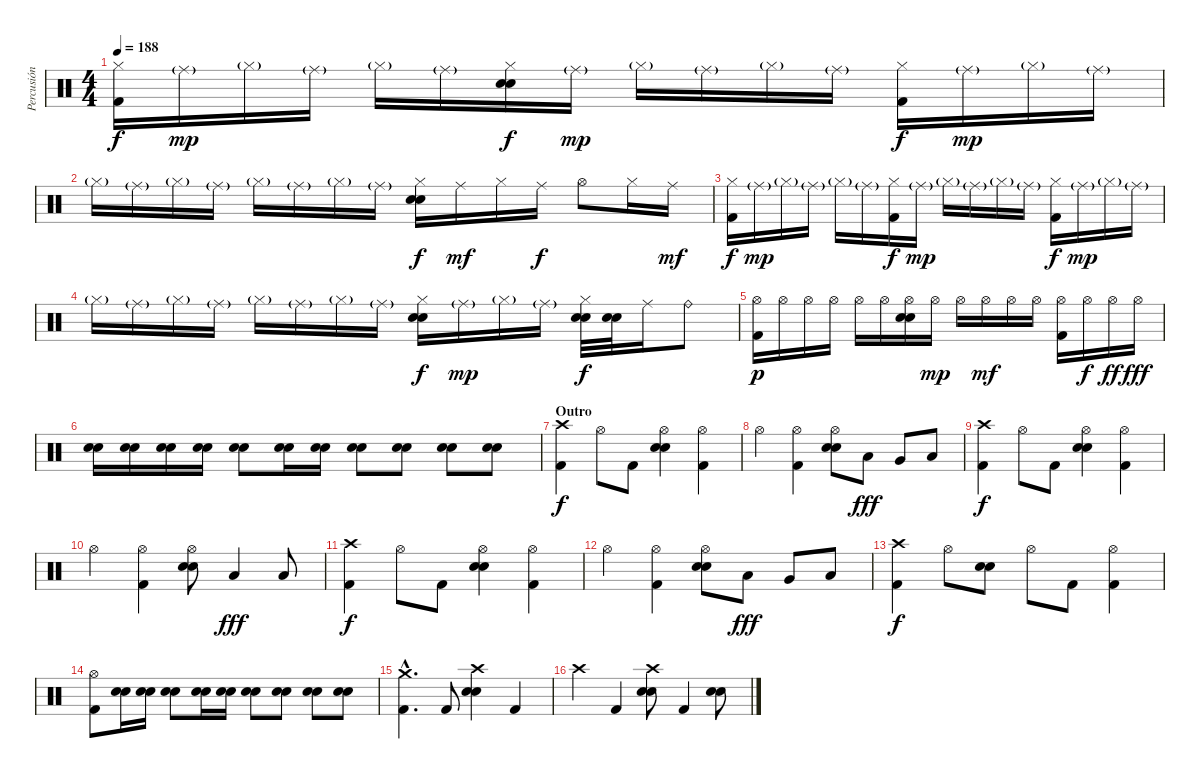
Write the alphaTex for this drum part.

\track ("Percusión" "Percusión") {instrument percussion}
\staff {score}
\articulation defaults
\ts (4 4)
\tempo 188
\clef neutral
\ks c
("Hi-Hat (closed)" "Kick (hit) 2").16{dy f} "Ride (middle)"{g}.16{dy mp} "Hi-Hat (closed)"{g}.16 "Ride (middle)"{g}.16 "Hi-Hat (closed)"{g}.16 "Ride (middle)"{g}.16 ("Hi-Hat (closed)" "Electric Snare (hit)" "Snare (hit) 2").16{dy f} "Ride (middle)"{g}.16{dy mp} "Hi-Hat (closed)"{g}.16 "Ride (middle)"{g}.16 "Hi-Hat (closed)"{g}.16 "Ride (middle)"{g}.16 ("Hi-Hat (closed)" "Kick (hit) 2").16{dy f} "Ride (middle)"{g}.16{dy mp} "Hi-Hat (closed)"{g}.16 "Ride (middle)"{g}.16 |
"Hi-Hat (closed)"{g}.16 "Ride (middle)"{g}.16 "Hi-Hat (closed)"{g}.16 "Ride (middle)"{g}.16 "Hi-Hat (closed)"{g}.16 "Ride (middle)"{g}.16 "Hi-Hat (closed)"{g}.16 "Ride (middle)"{g}.16 ("Hi-Hat (closed)" "Electric Snare (hit)" "Snare (hit) 2").16{dy f} "Ride (middle)".16{dy mf} "Hi-Hat (closed)".16 "Ride (middle)".16{dy f} "Hi-Hat (open)".8 "Hi-Hat (closed)".16 "Ride (middle)".16{dy mf} |
("Hi-Hat (closed)" "Kick (hit) 2").16{dy f} "Ride (middle)"{g}.16{dy mp} "Hi-Hat (closed)"{g}.16 "Ride (middle)"{g}.16 "Hi-Hat (closed)"{g}.16 "Ride (middle)"{g}.16 ("Hi-Hat (closed)" "Kick (hit) 2").16{dy f} "Ride (middle)"{g}.16{dy mp} "Hi-Hat (closed)"{g}.16 "Ride (middle)"{g}.16 "Hi-Hat (closed)"{g}.16 "Ride (middle)"{g}.16 ("Hi-Hat (closed)" "Kick (hit) 2").16{dy f} "Ride (middle)"{g}.16{dy mp} "Hi-Hat (closed)"{g}.16 "Ride (middle)"{g}.16 |
"Hi-Hat (closed)"{g}.16 "Ride (middle)"{g}.16 "Hi-Hat (closed)"{g}.16 "Ride (middle)"{g}.16 "Hi-Hat (closed)"{g}.16 "Ride (middle)"{g}.16 "Hi-Hat (closed)"{g}.16 "Ride (middle)"{g}.16 ("Hi-Hat (closed)" "Electric Snare (hit)" "Snare (hit) 2").16{dy f} "Ride (middle)"{g}.16{dy mp} "Hi-Hat (closed)"{g}.16 "Ride (middle)"{g}.16 ("Hi-Hat (closed)" "Electric Snare (hit)" "Snare (hit) 2").32{dy f} ("Electric Snare (hit)" "Snare (hit) 2").32 "Ride (middle)".16 "Ride (bell)".8 |
("Hi-Hat (open)" "Kick (hit) 2").16{dy p} "Hi-Hat (open)".16 "Hi-Hat (open)".16 "Hi-Hat (open)".16 "Hi-Hat (open)".16 "Hi-Hat (open)".16 ("Hi-Hat (open)" "Electric Snare (hit)" "Snare (hit) 2").16 "Hi-Hat (open)".16{dy mp} "Hi-Hat (open)".16 "Hi-Hat (open)".16{dy mf} "Hi-Hat (open)".16 "Hi-Hat (open)".16 ("Hi-Hat (open)" "Kick (hit) 2").16 "Hi-Hat (open)".16{dy f} "Hi-Hat (open)".16{dy ff} "Hi-Hat (open)".16{dy fff} |
("Electric Snare (hit)" "Snare (hit) 2").16 ("Electric Snare (hit)" "Snare (hit) 2").16 ("Electric Snare (hit)" "Snare (hit) 2").16 ("Electric Snare (hit)" "Snare (hit) 2").16 ("Electric Snare (hit)" "Snare (hit) 2").8 ("Electric Snare (hit)" "Snare (hit) 2").16 ("Electric Snare (hit)" "Snare (hit) 2").16 ("Electric Snare (hit)" "Snare (hit) 2").8 ("Electric Snare (hit)" "Snare (hit) 2").8 ("Electric Snare (hit)" "Snare (hit) 2").8 ("Electric Snare (hit)" "Snare (hit) 2").8 |
\section ("" "Outro")
("Crash high (hit)" "Kick (hit) 2").4{dy f volume 13} "Hi-Hat (open)".8 "Kick (hit) 2".8 ("Hi-Hat (open)" "Electric Snare (hit)" "Snare (hit) 2").4 ("Hi-Hat (open)" "Kick (hit) 2").4 |
"Hi-Hat (open)".4 ("Hi-Hat (open)" "Kick (hit) 2").4 ("Hi-Hat (open)" "Electric Snare (hit)" "Snare (hit) 2").8 "Low Tom (hit)".8{dy fff} "Very Low Tom (hit)".8 "Low Floor Tom (hit)".8 |
("Crash high (hit)" "Kick (hit) 2").4{dy f} "Hi-Hat (open)".8 "Kick (hit) 2".8 ("Hi-Hat (open)" "Electric Snare (hit)" "Snare (hit) 2").4 ("Hi-Hat (open)" "Kick (hit) 2").4 |
"Hi-Hat (open)".4 ("Hi-Hat (open)" "Kick (hit) 2").4 ("Hi-Hat (open)" "Electric Snare (hit)" "Snare (hit) 2").8 "Low Tom (hit)".4{dy fff} "Low Floor Tom (hit)".8 |
("Crash high (hit)" "Kick (hit) 2").4{dy f} "Hi-Hat (open)".8 "Kick (hit) 2".8 ("Hi-Hat (open)" "Electric Snare (hit)" "Snare (hit) 2").4 ("Hi-Hat (open)" "Kick (hit) 2").4 |
"Hi-Hat (open)".4 ("Hi-Hat (open)" "Kick (hit) 2").4 ("Hi-Hat (open)" "Electric Snare (hit)" "Snare (hit) 2").8 "Low Tom (hit)".8{dy fff} "Very Low Tom (hit)".8 "Low Floor Tom (hit)".8 |
("Crash high (hit)" "Kick (hit) 2").4{dy f} "Hi-Hat (open)".8 ("Electric Snare (hit)" "Snare (hit) 2").8 "Hi-Hat (open)".8 "Kick (hit) 2".8 ("Hi-Hat (open)" "Kick (hit) 2").4 |
("Hi-Hat (open)" "Kick (hit) 2").8 ("Electric Snare (hit)" "Snare (hit) 2").16 ("Electric Snare (hit)" "Snare (hit) 2").16 ("Electric Snare (hit)" "Snare (hit) 2").8 ("Electric Snare (hit)" "Snare (hit) 2").16 ("Electric Snare (hit)" "Snare (hit) 2").16 ("Electric Snare (hit)" "Snare (hit) 2").8 ("Electric Snare (hit)" "Snare (hit) 2").8 ("Electric Snare (hit)" "Snare (hit) 2").8 ("Electric Snare (hit)" "Snare (hit) 2").8 |
("Crash medium (hit)"{hac} "Kick (hit) 2"{hac}).4{d} "Kick (hit) 2".8 ("Crash high (hit)" "Electric Snare (hit)" "Snare (hit) 2").4 "Kick (hit) 2".4 |
"Crash high (hit)".4 "Kick (hit) 2".4 ("Crash high (hit)" "Electric Snare (hit)" "Snare (hit) 2").8 "Kick (hit) 2".4 ("Electric Snare (hit)" "Snare (hit) 2").8
